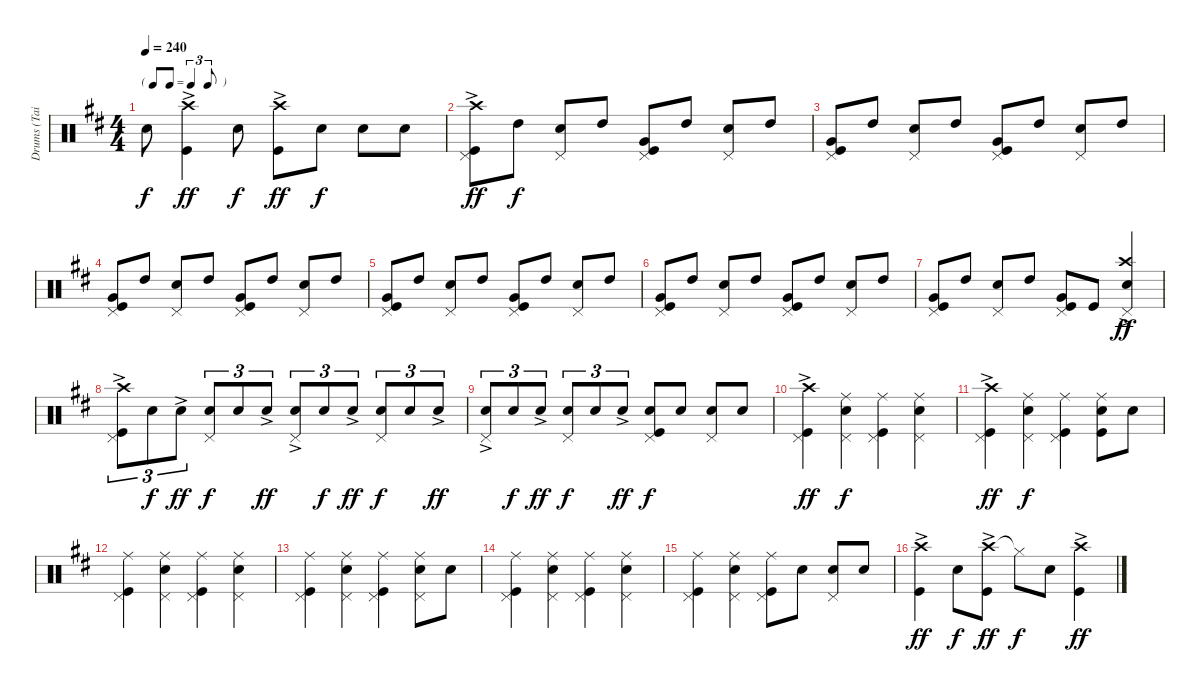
\track ("Drums (Tainaka Ritsu)" "Drums (Tai") {instrument percussion}
\staff {score}
\articulation defaults
\ts (4 4)
\tf triplet8th
\tempo 240
\clef neutral
\ks d "Snare (hit) 2".8{dy f}
("Crash high (hit)"{ac} "Kick (hit)").4{dy ff} "Snare (hit) 2".8{dy f} ("Crash high (hit)"{ac} "Kick (hit)").8{dy ff} "Snare (hit) 2".8{dy f} "Snare (hit) 2".8 "Snare (hit) 2".8 |
("Crash high (hit)"{ac} "Kick (hit)" "Pedal Hi-Hat (hit)").8{dy ff} "High Tom (hit)".8{dy f} ("Snare (hit) 2" "Pedal Hi-Hat (hit)").8 "High Tom (hit)".8 ("Very Low Tom (hit)" "Kick (hit)" "Pedal Hi-Hat (hit)").8 "High Tom (hit)".8 ("Snare (hit) 2" "Pedal Hi-Hat (hit)").8 "High Tom (hit)".8 |
("Very Low Tom (hit)" "Kick (hit)" "Pedal Hi-Hat (hit)").8 "High Tom (hit)".8 ("Snare (hit) 2" "Pedal Hi-Hat (hit)").8 "High Tom (hit)".8 ("Very Low Tom (hit)" "Kick (hit)" "Pedal Hi-Hat (hit)").8 "High Tom (hit)".8 ("Snare (hit) 2" "Pedal Hi-Hat (hit)").8 "High Tom (hit)".8 |
("Very Low Tom (hit)" "Kick (hit)" "Pedal Hi-Hat (hit)").8 "High Tom (hit)".8 ("Snare (hit) 2" "Pedal Hi-Hat (hit)").8 "High Tom (hit)".8 ("Very Low Tom (hit)" "Kick (hit)" "Pedal Hi-Hat (hit)").8 "High Tom (hit)".8 ("Snare (hit) 2" "Pedal Hi-Hat (hit)").8 "High Tom (hit)".8 |
("Very Low Tom (hit)" "Kick (hit)" "Pedal Hi-Hat (hit)").8 "High Tom (hit)".8 ("Snare (hit) 2" "Pedal Hi-Hat (hit)").8 "High Tom (hit)".8 ("Very Low Tom (hit)" "Kick (hit)" "Pedal Hi-Hat (hit)").8 "High Tom (hit)".8 ("Snare (hit) 2" "Pedal Hi-Hat (hit)").8 "High Tom (hit)".8 |
("Very Low Tom (hit)" "Kick (hit)" "Pedal Hi-Hat (hit)").8 "High Tom (hit)".8 ("Snare (hit) 2" "Pedal Hi-Hat (hit)").8 "High Tom (hit)".8 ("Very Low Tom (hit)" "Kick (hit)" "Pedal Hi-Hat (hit)").8 "High Tom (hit)".8 ("Snare (hit) 2" "Pedal Hi-Hat (hit)").8 "High Tom (hit)".8 |
("Very Low Tom (hit)" "Kick (hit)" "Pedal Hi-Hat (hit)").8 "High Tom (hit)".8 ("Snare (hit) 2" "Pedal Hi-Hat (hit)").8 "High Tom (hit)".8 ("Very Low Tom (hit)" "Kick (hit)" "Pedal Hi-Hat (hit)").8 "Kick (hit)".8 ("Crash high (hit)"{ac} "Snare (hit) 2" "Pedal Hi-Hat (hit)").4{dy ff} |
("Crash high (hit)"{ac} "Kick (hit)" "Pedal Hi-Hat (hit)").8{tu (3 2)} "Snare (hit) 2".8{tu (3 2) dy f} "Snare (hit) 2"{ac}.8{tu (3 2) dy ff} ("Snare (hit) 2" "Pedal Hi-Hat (hit)").8{tu (3 2) dy f} "Snare (hit) 2".8{tu (3 2)} "Snare (hit) 2"{ac}.8{tu (3 2) dy ff} ("Snare (hit) 2"{ac} "Pedal Hi-Hat (hit)").8{tu (3 2)} "Snare (hit) 2".8{tu (3 2) dy f} "Snare (hit) 2"{ac}.8{tu (3 2) dy ff} ("Snare (hit) 2" "Pedal Hi-Hat (hit)").8{tu (3 2) dy f} "Snare (hit) 2".8{tu (3 2)} "Snare (hit) 2"{ac}.8{tu (3 2) dy ff} |
("Snare (hit) 2"{ac} "Pedal Hi-Hat (hit)").8{tu (3 2)} "Snare (hit) 2".8{tu (3 2) dy f} "Snare (hit) 2"{ac}.8{tu (3 2) dy ff} ("Snare (hit) 2" "Pedal Hi-Hat (hit)").8{tu (3 2) dy f} "Snare (hit) 2".8{tu (3 2)} "Snare (hit) 2"{ac}.8{tu (3 2) dy ff} ("Snare (hit) 2" "Kick (hit)" "Pedal Hi-Hat (hit)").8{dy f} "Snare (hit) 2".8 ("Snare (hit) 2" "Pedal Hi-Hat (hit)").8 "Snare (hit) 2".8 |
("Crash high (hit)"{ac} "Kick (hit)" "Pedal Hi-Hat (hit)").4{dy ff} ("Ride (middle)" "Snare (hit) 2" "Pedal Hi-Hat (hit)").4{dy f} ("Ride (middle)" "Kick (hit)" "Pedal Hi-Hat (hit)").4 ("Ride (middle)" "Snare (hit) 2" "Pedal Hi-Hat (hit)").4 |
("Crash high (hit)"{ac} "Kick (hit)" "Pedal Hi-Hat (hit)").4{dy ff} ("Ride (middle)" "Snare (hit) 2" "Pedal Hi-Hat (hit)").4{dy f} ("Ride (middle)" "Kick (hit)" "Pedal Hi-Hat (hit)").4 ("Ride (middle)" "Snare (hit) 2" "Kick (hit)").8 "Snare (hit) 2".8 |
("Ride (middle)" "Kick (hit)" "Pedal Hi-Hat (hit)").4 ("Ride (middle)" "Snare (hit) 2" "Pedal Hi-Hat (hit)").4 ("Ride (middle)" "Kick (hit)" "Pedal Hi-Hat (hit)").4 ("Ride (middle)" "Snare (hit) 2" "Pedal Hi-Hat (hit)").4 |
("Ride (middle)" "Kick (hit)" "Pedal Hi-Hat (hit)").4 ("Ride (middle)" "Snare (hit) 2" "Pedal Hi-Hat (hit)").4 ("Ride (middle)" "Kick (hit)" "Pedal Hi-Hat (hit)").4 ("Ride (middle)" "Snare (hit) 2" "Pedal Hi-Hat (hit)").8 "Snare (hit) 2".8 |
("Ride (middle)" "Kick (hit)" "Pedal Hi-Hat (hit)").4 ("Ride (middle)" "Snare (hit) 2" "Pedal Hi-Hat (hit)").4 ("Ride (middle)" "Kick (hit)" "Pedal Hi-Hat (hit)").4 ("Ride (middle)" "Snare (hit) 2" "Pedal Hi-Hat (hit)").4 |
("Ride (middle)" "Kick (hit)" "Pedal Hi-Hat (hit)").4 ("Ride (middle)" "Snare (hit) 2" "Pedal Hi-Hat (hit)").4 ("Ride (middle)" "Kick (hit)" "Pedal Hi-Hat (hit)").8 "Snare (hit) 2".8 ("Snare (hit) 2" "Pedal Hi-Hat (hit)").8 "Snare (hit) 2".8 |
("Crash high (hit)"{ac} "Kick (hit)").4{dy ff} "Snare (hit) 2".8{dy f} ("Crash high (hit)"{ac} "Kick (hit)").8{dy ff} "Hi-Hat (closed)"{t}.8{dy f} "Snare (hit) 2".8 ("Crash high (hit)"{ac} "Kick (hit)").4{dy ff}
